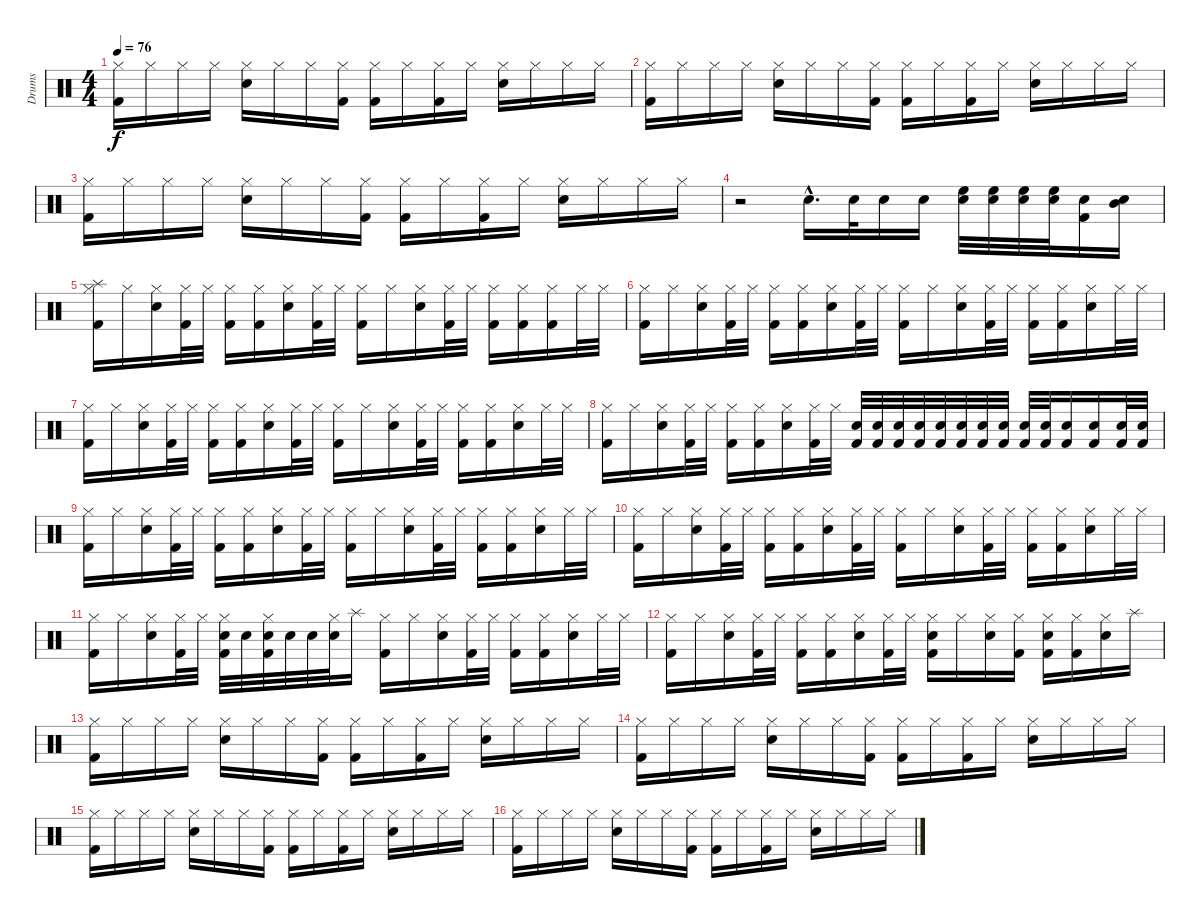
\track ("Drums" "Drums") {instrument percussion}
\staff {score}
\articulation defaults
\ts (4 4)
\tempo 76
\clef neutral
\ks c
("Hi-Hat (closed)" "Kick (hit) 2").16{dy f} "Hi-Hat (closed)".16 "Hi-Hat (closed)".16 "Hi-Hat (closed)".16 ("Hi-Hat (closed)" "Snare (hit) 2").16 "Hi-Hat (closed)".16 "Hi-Hat (closed)".16 ("Hi-Hat (closed)" "Kick (hit) 2").16 ("Hi-Hat (closed)" "Kick (hit) 2").16 "Hi-Hat (closed)".16 ("Hi-Hat (closed)" "Kick (hit) 2").16 "Hi-Hat (closed)".16 ("Hi-Hat (closed)" "Snare (hit) 2").16 "Hi-Hat (closed)".16 "Hi-Hat (closed)".16 "Hi-Hat (closed)".16 |
("Hi-Hat (closed)" "Kick (hit) 2").16 "Hi-Hat (closed)".16 "Hi-Hat (closed)".16 "Hi-Hat (closed)".16 ("Hi-Hat (closed)" "Snare (hit) 2").16 "Hi-Hat (closed)".16 "Hi-Hat (closed)".16 ("Hi-Hat (closed)" "Kick (hit) 2").16 ("Hi-Hat (closed)" "Kick (hit) 2").16 "Hi-Hat (closed)".16 ("Hi-Hat (closed)" "Kick (hit) 2").16 "Hi-Hat (closed)".16 ("Hi-Hat (closed)" "Snare (hit) 2").16 "Hi-Hat (closed)".16 "Hi-Hat (closed)".16 "Hi-Hat (closed)".16 |
("Hi-Hat (closed)" "Kick (hit) 2").16 "Hi-Hat (closed)".16 "Hi-Hat (closed)".16 "Hi-Hat (closed)".16 ("Hi-Hat (closed)" "Snare (hit) 2").16 "Hi-Hat (closed)".16 "Hi-Hat (closed)".16 ("Hi-Hat (closed)" "Kick (hit) 2").16 ("Hi-Hat (closed)" "Kick (hit) 2").16 "Hi-Hat (closed)".16 ("Hi-Hat (closed)" "Kick (hit) 2").16 "Hi-Hat (closed)".16 ("Hi-Hat (closed)" "Snare (hit) 2").16 "Hi-Hat (closed)".16 "Hi-Hat (closed)".16 "Hi-Hat (closed)".16 |
r.2 "Snare (hit) 2"{hac}.16{d} "Snare (hit) 2".32 "Snare (hit) 2".16 "Snare (hit) 2".16 ("Snare (hit) 2" "High Floor Tom (hit)").32 ("Snare (hit) 2" "High Floor Tom (hit)").32 ("Snare (hit) 2" "High Floor Tom (hit)").32 ("Snare (hit) 2" "High Floor Tom (hit)").32 ("Snare (hit) 2" "Kick (hit) 2").16 ("Snare (hit) 2" "Mid Tom (hit)").16 |
("Hi-Hat (closed)" "Kick (hit) 2" "Splash (hit)").16 "Hi-Hat (closed)".16 ("Hi-Hat (closed)" "Snare (hit) 2").16 ("Hi-Hat (closed)" "Kick (hit) 2").32 "Hi-Hat (closed)".32 ("Hi-Hat (closed)" "Kick (hit) 2").16 ("Hi-Hat (closed)" "Kick (hit) 2").16 ("Hi-Hat (closed)" "Snare (hit) 2").16 ("Hi-Hat (closed)" "Kick (hit) 2").32 "Hi-Hat (closed)".32 ("Hi-Hat (closed)" "Kick (hit) 2").16 "Hi-Hat (closed)".16 ("Hi-Hat (closed)" "Snare (hit) 2").16 ("Hi-Hat (closed)" "Kick (hit) 2").32 "Hi-Hat (closed)".32 ("Hi-Hat (closed)" "Kick (hit) 2").16 ("Hi-Hat (closed)" "Kick (hit) 2").16 ("Hi-Hat (closed)" "Kick (hit) 2").16 "Hi-Hat (closed)".32 "Hi-Hat (closed)".32 |
("Hi-Hat (closed)" "Kick (hit) 2").16 "Hi-Hat (closed)".16 ("Hi-Hat (closed)" "Snare (hit) 2").16 ("Hi-Hat (closed)" "Kick (hit) 2").32 "Hi-Hat (closed)".32 ("Hi-Hat (closed)" "Kick (hit) 2").16 ("Hi-Hat (closed)" "Kick (hit) 2").16 ("Hi-Hat (closed)" "Snare (hit) 2").16 ("Hi-Hat (closed)" "Kick (hit) 2").32 "Hi-Hat (closed)".32 ("Hi-Hat (closed)" "Kick (hit) 2").16 "Hi-Hat (closed)".16 ("Hi-Hat (closed)" "Snare (hit) 2").16 ("Hi-Hat (closed)" "Kick (hit) 2").32 "Hi-Hat (closed)".32 ("Hi-Hat (closed)" "Kick (hit) 2").16 ("Hi-Hat (closed)" "Kick (hit) 2").16 ("Hi-Hat (closed)" "Snare (hit) 2").16 "Hi-Hat (closed)".32 "Hi-Hat (closed)".32 |
("Hi-Hat (closed)" "Kick (hit) 2").16 "Hi-Hat (closed)".16 ("Hi-Hat (closed)" "Snare (hit) 2").16 ("Hi-Hat (closed)" "Kick (hit) 2").32 "Hi-Hat (closed)".32 ("Hi-Hat (closed)" "Kick (hit) 2").16 ("Hi-Hat (closed)" "Kick (hit) 2").16 ("Hi-Hat (closed)" "Snare (hit) 2").16 ("Hi-Hat (closed)" "Kick (hit) 2").32 "Hi-Hat (closed)".32 ("Hi-Hat (closed)" "Kick (hit) 2").16 "Hi-Hat (closed)".16 ("Hi-Hat (closed)" "Snare (hit) 2").16 ("Hi-Hat (closed)" "Kick (hit) 2").32 "Hi-Hat (closed)".32 ("Hi-Hat (closed)" "Kick (hit) 2").16 ("Hi-Hat (closed)" "Kick (hit) 2").16 ("Hi-Hat (closed)" "Snare (hit) 2").16 "Hi-Hat (closed)".32 "Hi-Hat (closed)".32 |
("Hi-Hat (closed)" "Kick (hit) 2").16 "Hi-Hat (closed)".16 ("Hi-Hat (closed)" "Snare (hit) 2").16 ("Hi-Hat (closed)" "Kick (hit) 2").32 "Hi-Hat (closed)".32 ("Hi-Hat (closed)" "Kick (hit) 2").16 ("Hi-Hat (closed)" "Kick (hit) 2").16 ("Hi-Hat (closed)" "Snare (hit) 2").16 ("Hi-Hat (closed)" "Kick (hit) 2").32 "Hi-Hat (closed)".32 ("Snare (hit) 2" "Kick (hit) 2").32 ("Snare (hit) 2" "Kick (hit) 2").32 ("Snare (hit) 2" "Kick (hit) 2").32 ("Snare (hit) 2" "Kick (hit) 2").32 ("Snare (hit) 2" "Kick (hit) 2").32 ("Snare (hit) 2" "Kick (hit) 2").32 ("Snare (hit) 2" "Kick (hit) 2").32 ("Snare (hit) 2" "Kick (hit) 2").32 ("Snare (hit) 2" "Kick (hit) 2").32 ("Snare (hit) 2" "Kick (hit) 2").32 ("Snare (hit) 2" "Kick (hit) 2").16 ("Snare (hit) 2" "Kick (hit) 2").16 ("Snare (hit) 2" "Kick (hit) 2").32 ("Snare (hit) 2" "Kick (hit) 2").32 |
("Hi-Hat (closed)" "Kick (hit) 2").16 "Hi-Hat (closed)".16 ("Hi-Hat (closed)" "Snare (hit) 2").16 ("Hi-Hat (closed)" "Kick (hit) 2").32 "Hi-Hat (closed)".32 ("Hi-Hat (closed)" "Kick (hit) 2").16 ("Hi-Hat (closed)" "Kick (hit) 2").16 ("Hi-Hat (closed)" "Snare (hit) 2").16 ("Hi-Hat (closed)" "Kick (hit) 2").32 "Hi-Hat (closed)".32 ("Hi-Hat (closed)" "Kick (hit) 2").16 "Hi-Hat (closed)".16 ("Hi-Hat (closed)" "Snare (hit) 2").16 ("Hi-Hat (closed)" "Kick (hit) 2").32 "Hi-Hat (closed)".32 ("Hi-Hat (closed)" "Kick (hit) 2").16 ("Hi-Hat (closed)" "Kick (hit) 2").16 ("Hi-Hat (closed)" "Snare (hit) 2").16 "Hi-Hat (closed)".32 "Hi-Hat (closed)".32 |
("Hi-Hat (closed)" "Kick (hit) 2").16 "Hi-Hat (closed)".16 ("Hi-Hat (closed)" "Snare (hit) 2").16 ("Hi-Hat (closed)" "Kick (hit) 2").32 "Hi-Hat (closed)".32 ("Hi-Hat (closed)" "Kick (hit) 2").16 ("Hi-Hat (closed)" "Kick (hit) 2").16 ("Hi-Hat (closed)" "Snare (hit) 2").16 ("Hi-Hat (closed)" "Kick (hit) 2").32 "Hi-Hat (closed)".32 ("Hi-Hat (closed)" "Kick (hit) 2").16 "Hi-Hat (closed)".16 ("Hi-Hat (closed)" "Snare (hit) 2").16 ("Hi-Hat (closed)" "Kick (hit) 2").32 "Hi-Hat (closed)".32 ("Hi-Hat (closed)" "Kick (hit) 2").16 ("Hi-Hat (closed)" "Kick (hit) 2").16 ("Hi-Hat (closed)" "Snare (hit) 2").16 "Hi-Hat (closed)".32 "Hi-Hat (closed)".32 |
("Hi-Hat (closed)" "Kick (hit) 2").16 "Hi-Hat (closed)".16 ("Hi-Hat (closed)" "Snare (hit) 2").16 ("Hi-Hat (closed)" "Kick (hit) 2").32 "Hi-Hat (closed)".32 ("Hi-Hat (closed)" "Kick (hit) 2" "Snare (hit) 2").32 "Snare (hit) 2".32 ("Hi-Hat (closed)" "Kick (hit) 2" "Snare (hit) 2").32 "Snare (hit) 2".32 "Snare (hit) 2".32 ("Hi-Hat (closed)" "Snare (hit) 2").32 "Splash (hit)".16 ("Hi-Hat (closed)" "Kick (hit) 2").16 "Hi-Hat (closed)".16 ("Hi-Hat (closed)" "Snare (hit) 2").16 ("Hi-Hat (closed)" "Kick (hit) 2").32 "Hi-Hat (closed)".32 ("Hi-Hat (closed)" "Kick (hit) 2").16 ("Hi-Hat (closed)" "Kick (hit) 2").16 ("Hi-Hat (closed)" "Snare (hit) 2").16 "Hi-Hat (closed)".32 "Hi-Hat (closed)".32 |
("Hi-Hat (closed)" "Kick (hit) 2").16 "Hi-Hat (closed)".16 ("Hi-Hat (closed)" "Snare (hit) 2").16 ("Hi-Hat (closed)" "Kick (hit) 2").32 "Hi-Hat (closed)".32 ("Hi-Hat (closed)" "Kick (hit) 2").16 ("Hi-Hat (closed)" "Kick (hit) 2").16 ("Hi-Hat (closed)" "Snare (hit) 2").16 ("Hi-Hat (closed)" "Kick (hit) 2").32 "Hi-Hat (closed)".32 ("Hi-Hat (closed)" "Kick (hit) 2" "Snare (hit) 2").16 "Hi-Hat (closed)".16 ("Hi-Hat (closed)" "Snare (hit) 2").16 ("Hi-Hat (closed)" "Kick (hit) 2").16 ("Hi-Hat (closed)" "Kick (hit) 2" "Snare (hit) 2").16 ("Hi-Hat (closed)" "Kick (hit) 2").16 ("Hi-Hat (closed)" "Snare (hit) 2").16 "Splash (hit)".16 |
("Hi-Hat (closed)" "Kick (hit) 2").16 "Hi-Hat (closed)".16 "Hi-Hat (closed)".16 "Hi-Hat (closed)".16 ("Hi-Hat (closed)" "Snare (hit) 2").16 "Hi-Hat (closed)".16 "Hi-Hat (closed)".16 ("Hi-Hat (closed)" "Kick (hit) 2").16 ("Hi-Hat (closed)" "Kick (hit) 2").16 "Hi-Hat (closed)".16 ("Hi-Hat (closed)" "Kick (hit) 2").16 "Hi-Hat (closed)".16 ("Hi-Hat (closed)" "Snare (hit) 2").16 "Hi-Hat (closed)".16 "Hi-Hat (closed)".16 "Hi-Hat (closed)".16 |
("Hi-Hat (closed)" "Kick (hit) 2").16 "Hi-Hat (closed)".16 "Hi-Hat (closed)".16 "Hi-Hat (closed)".16 ("Hi-Hat (closed)" "Snare (hit) 2").16 "Hi-Hat (closed)".16 "Hi-Hat (closed)".16 ("Hi-Hat (closed)" "Kick (hit) 2").16 ("Hi-Hat (closed)" "Kick (hit) 2").16 "Hi-Hat (closed)".16 ("Hi-Hat (closed)" "Kick (hit) 2").16 "Hi-Hat (closed)".16 ("Hi-Hat (closed)" "Snare (hit) 2").16 "Hi-Hat (closed)".16 "Hi-Hat (closed)".16 "Hi-Hat (closed)".16 |
("Hi-Hat (closed)" "Kick (hit) 2").16 "Hi-Hat (closed)".16 "Hi-Hat (closed)".16 "Hi-Hat (closed)".16 ("Hi-Hat (closed)" "Snare (hit) 2").16 "Hi-Hat (closed)".16 "Hi-Hat (closed)".16 ("Hi-Hat (closed)" "Kick (hit) 2").16 ("Hi-Hat (closed)" "Kick (hit) 2").16 "Hi-Hat (closed)".16 ("Hi-Hat (closed)" "Kick (hit) 2").16 "Hi-Hat (closed)".16 ("Hi-Hat (closed)" "Snare (hit) 2").16 "Hi-Hat (closed)".16 "Hi-Hat (closed)".16 "Hi-Hat (closed)".16 |
("Hi-Hat (closed)" "Kick (hit) 2").16 "Hi-Hat (closed)".16 "Hi-Hat (closed)".16 "Hi-Hat (closed)".16 ("Hi-Hat (closed)" "Snare (hit) 2").16 "Hi-Hat (closed)".16 "Hi-Hat (closed)".16 ("Hi-Hat (closed)" "Kick (hit) 2").16 ("Hi-Hat (closed)" "Kick (hit) 2").16 "Hi-Hat (closed)".16 ("Hi-Hat (closed)" "Kick (hit) 2").16 "Hi-Hat (closed)".16 ("Hi-Hat (closed)" "Snare (hit) 2").16 "Hi-Hat (closed)".16 "Hi-Hat (closed)".16 "Hi-Hat (closed)".16
